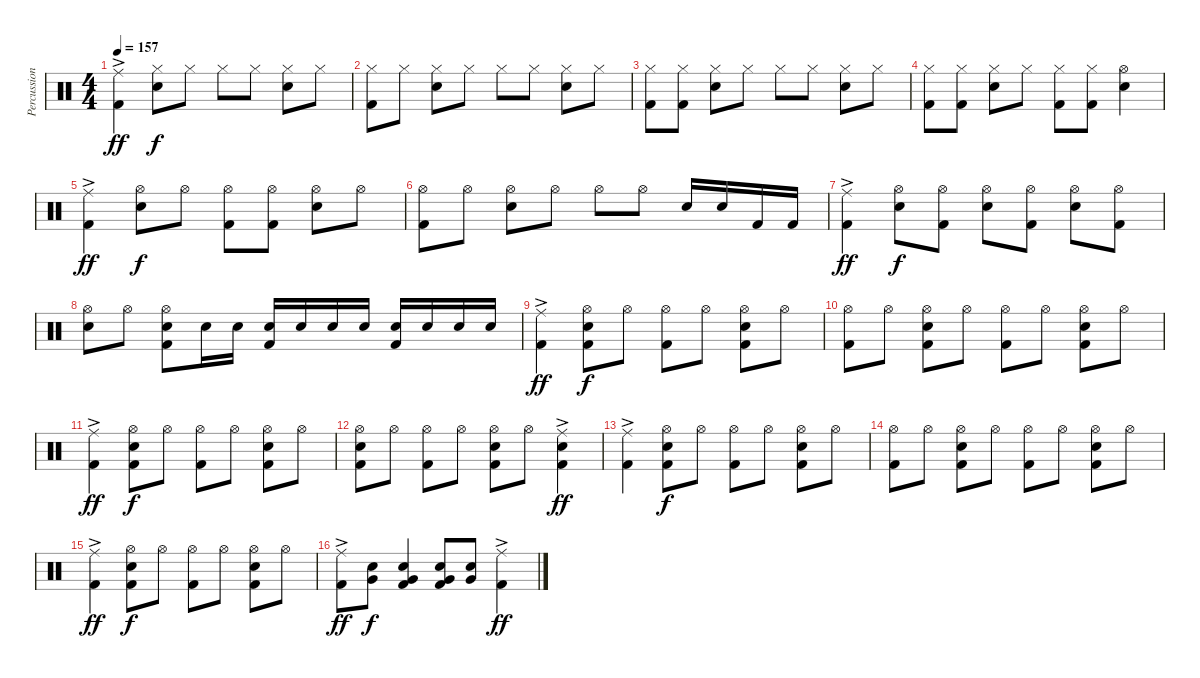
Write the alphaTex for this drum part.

\track ("Percussion" "Percussion") {instrument percussion}
\staff {score}
\articulation defaults
\ts (4 4)
\tempo 157
\clef neutral
\ks c
("Ride (middle)"{ac} "Kick (hit) 2").4{dy ff} ("Hi-Hat (closed)" "Snare (hit) 2").8{dy f} "Hi-Hat (closed)".8 "Hi-Hat (closed)".8 "Hi-Hat (closed)".8 ("Hi-Hat (closed)" "Snare (hit) 2").8 "Hi-Hat (closed)".8 |
("Hi-Hat (closed)" "Kick (hit) 2").8 "Hi-Hat (closed)".8 ("Hi-Hat (closed)" "Snare (hit) 2").8 "Hi-Hat (closed)".8 "Hi-Hat (closed)".8 "Hi-Hat (closed)".8 ("Hi-Hat (closed)" "Snare (hit) 2").8 "Hi-Hat (closed)".8 |
("Hi-Hat (closed)" "Kick (hit) 2").8 ("Hi-Hat (closed)" "Kick (hit) 2").8 ("Hi-Hat (closed)" "Snare (hit) 2").8 "Hi-Hat (closed)".8 "Hi-Hat (closed)".8 "Hi-Hat (closed)".8 ("Hi-Hat (closed)" "Snare (hit) 2").8 "Hi-Hat (closed)".8 |
("Hi-Hat (closed)" "Kick (hit) 2").8 ("Hi-Hat (closed)" "Kick (hit) 2").8 ("Hi-Hat (closed)" "Snare (hit) 2").8 "Hi-Hat (closed)".8 ("Hi-Hat (closed)" "Kick (hit) 2").8 ("Hi-Hat (closed)" "Kick (hit) 2").8 ("Hi-Hat (open)" "Snare (hit) 2").4 |
("Ride (middle)"{ac} "Kick (hit) 2").4{dy ff} ("Hi-Hat (open)" "Snare (hit) 2").8{dy f} "Hi-Hat (open)".8 ("Hi-Hat (open)" "Kick (hit) 2").8 ("Hi-Hat (open)" "Kick (hit) 2").8 ("Hi-Hat (open)" "Snare (hit) 2").8 "Hi-Hat (open)".8 |
("Hi-Hat (open)" "Kick (hit) 2").8 "Hi-Hat (open)".8 ("Hi-Hat (open)" "Snare (hit) 2").8 "Hi-Hat (open)".8 "Hi-Hat (open)".8 "Hi-Hat (open)".8 "Snare (hit) 2".16 "Snare (hit) 2".16 "Kick (hit) 2".16 "Kick (hit) 2".16 |
("Ride (middle)"{ac} "Kick (hit) 2").4{dy ff} ("Hi-Hat (open)" "Snare (hit) 2").8{dy f} ("Hi-Hat (open)" "Kick (hit) 2").8 ("Hi-Hat (open)" "Snare (hit) 2").8 ("Hi-Hat (open)" "Kick (hit) 2").8 ("Hi-Hat (open)" "Snare (hit) 2").8 ("Hi-Hat (open)" "Kick (hit) 2").8 |
("Hi-Hat (open)" "Snare (hit) 2").8 "Hi-Hat (open)".8 ("Hi-Hat (open)" "Snare (hit) 2" "Kick (hit) 2").8 "Snare (hit) 2".16 "Snare (hit) 2".16 ("Snare (hit) 2" "Kick (hit) 2").16 "Snare (hit) 2".16 "Snare (hit) 2".16 "Snare (hit) 2".16 ("Snare (hit) 2" "Kick (hit) 2").16 "Snare (hit) 2".16 "Snare (hit) 2".16 "Snare (hit) 2".16 |
("Ride (middle)"{ac} "Kick (hit) 2").4{dy ff} ("Hi-Hat (open)" "Snare (hit) 2" "Kick (hit) 2").8{dy f} "Hi-Hat (open)".8 ("Hi-Hat (open)" "Kick (hit) 2").8 "Hi-Hat (open)".8 ("Hi-Hat (open)" "Snare (hit) 2" "Kick (hit) 2").8 "Hi-Hat (open)".8 |
("Hi-Hat (open)" "Kick (hit) 2").8 "Hi-Hat (open)".8 ("Hi-Hat (open)" "Snare (hit) 2" "Kick (hit) 2").8 "Hi-Hat (open)".8 ("Hi-Hat (open)" "Kick (hit) 2").8 "Hi-Hat (open)".8 ("Hi-Hat (open)" "Snare (hit) 2" "Kick (hit) 2").8 "Hi-Hat (open)".8 |
("Ride (middle)"{ac} "Kick (hit) 2").4{dy ff} ("Hi-Hat (open)" "Snare (hit) 2" "Kick (hit) 2").8{dy f} "Hi-Hat (open)".8 ("Hi-Hat (open)" "Kick (hit) 2").8 "Hi-Hat (open)".8 ("Hi-Hat (open)" "Snare (hit) 2" "Kick (hit) 2").8 "Hi-Hat (open)".8 |
("Hi-Hat (open)" "Snare (hit) 2" "Kick (hit) 2").8 "Hi-Hat (open)".8 ("Hi-Hat (open)" "Kick (hit) 2").8 "Hi-Hat (open)".8 ("Hi-Hat (open)" "Snare (hit) 2" "Kick (hit) 2").8 "Hi-Hat (open)".8 ("Ride (middle)"{ac} "Snare (hit) 2" "Kick (hit) 2").4{dy ff} |
("Ride (middle)"{ac} "Kick (hit) 2").4 ("Hi-Hat (open)" "Snare (hit) 2" "Kick (hit) 2").8{dy f} "Hi-Hat (open)".8 ("Hi-Hat (open)" "Kick (hit) 2").8 "Hi-Hat (open)".8 ("Hi-Hat (open)" "Snare (hit) 2" "Kick (hit) 2").8 "Hi-Hat (open)".8 |
("Hi-Hat (open)" "Kick (hit) 2").8 "Hi-Hat (open)".8 ("Hi-Hat (open)" "Snare (hit) 2" "Kick (hit) 2").8 "Hi-Hat (open)".8 ("Hi-Hat (open)" "Kick (hit) 2").8 "Hi-Hat (open)".8 ("Hi-Hat (open)" "Snare (hit) 2" "Kick (hit) 2").8 "Hi-Hat (open)".8 |
("Ride (middle)"{ac} "Kick (hit) 2").4{dy ff} ("Hi-Hat (open)" "Snare (hit) 2" "Kick (hit) 2").8{dy f} "Hi-Hat (open)".8 ("Hi-Hat (open)" "Kick (hit) 2").8 "Hi-Hat (open)".8 ("Hi-Hat (open)" "Snare (hit) 2" "Kick (hit) 2").8 "Hi-Hat (open)".8 |
("Ride (middle)"{ac} "Kick (hit) 2").8{dy ff} ("Snare (hit) 2" "Very Low Tom (hit)").8{dy f} ("Snare (hit) 2" "Very Low Tom (hit)" "Kick (hit) 2").4 ("Snare (hit) 2" "Very Low Tom (hit)" "Kick (hit) 2").8 ("Snare (hit) 2" "Very Low Tom (hit)").8 ("Ride (middle)"{ac} "Kick (hit) 2").4{dy ff}
